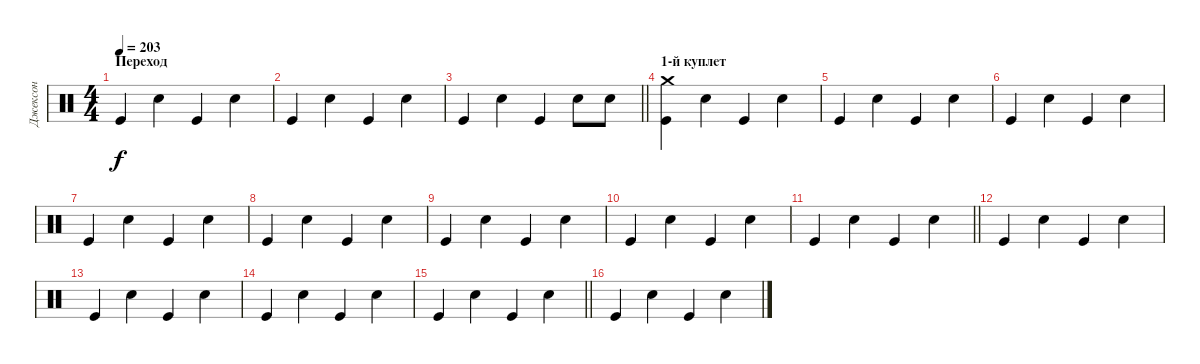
\track ("Джексон" "Джексон") {instrument percussion}
\staff {score}
\articulation defaults
\ts (4 4)
\section ("" "Переход")
\tempo 203
\clef neutral
\ks c "Kick (hit)".4{dy f} "Snare (hit) 2".4 "Kick (hit)".4 "Snare (hit) 2".4
|
"Kick (hit)".4 "Snare (hit) 2".4 "Kick (hit)".4 "Snare (hit) 2".4 |
\barLineRight lightlight "Kick (hit)".4 "Snare (hit) 2".4 "Kick (hit)".4 "Snare (hit) 2".8 "Snare (hit) 2".8
|
\section ("" "1-й куплет")
("Crash medium (hit)" "Kick (hit)").4 "Snare (hit) 2".4 "Kick (hit)".4 "Snare (hit) 2".4 |
"Kick (hit)".4 "Snare (hit) 2".4 "Kick (hit)".4 "Snare (hit) 2".4 |
"Kick (hit)".4 "Snare (hit) 2".4 "Kick (hit)".4 "Snare (hit) 2".4 |
"Kick (hit)".4 "Snare (hit) 2".4 "Kick (hit)".4 "Snare (hit) 2".4 |
"Kick (hit)".4 "Snare (hit) 2".4 "Kick (hit)".4 "Snare (hit) 2".4 |
"Kick (hit)".4 "Snare (hit) 2".4 "Kick (hit)".4 "Snare (hit) 2".4 |
"Kick (hit)".4 "Snare (hit) 2".4 "Kick (hit)".4 "Snare (hit) 2".4 |
\barLineRight lightlight "Kick (hit)".4 "Snare (hit) 2".4 "Kick (hit)".4 "Snare (hit) 2".4
|
"Kick (hit)".4 "Snare (hit) 2".4 "Kick (hit)".4 "Snare (hit) 2".4 |
"Kick (hit)".4 "Snare (hit) 2".4 "Kick (hit)".4 "Snare (hit) 2".4 |
"Kick (hit)".4 "Snare (hit) 2".4 "Kick (hit)".4 "Snare (hit) 2".4 |
\barLineRight lightlight "Kick (hit)".4 "Snare (hit) 2".4 "Kick (hit)".4 "Snare (hit) 2".4
|
"Kick (hit)".4 "Snare (hit) 2".4 "Kick (hit)".4 "Snare (hit) 2".4
